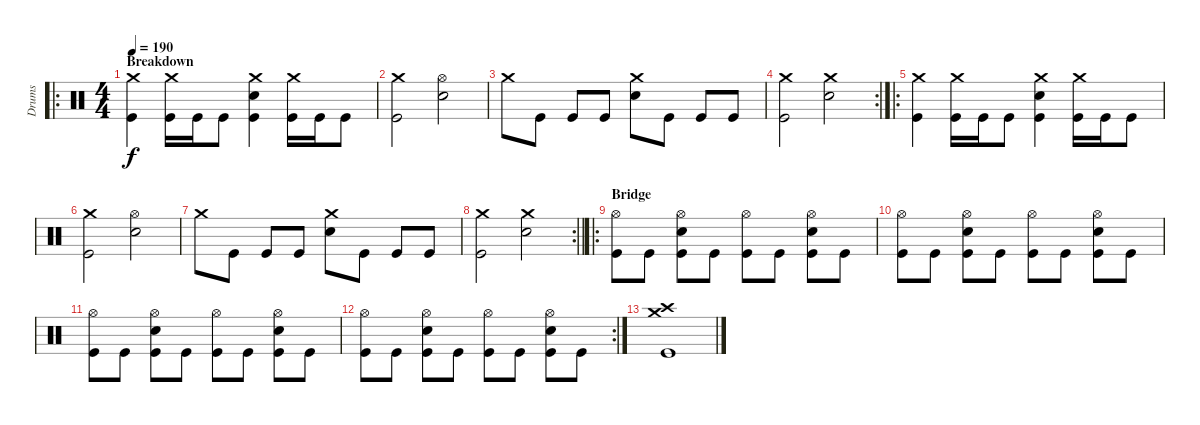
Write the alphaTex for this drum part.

\track ("Drums" "Drums") {instrument percussion}
\staff {score}
\articulation defaults
\ro
\ts (4 4)
\section ("" "Breakdown")
\tempo 190
\clef neutral
\ks c
("Crash medium (hit)" "Kick (hit)").4{dy f} ("Crash medium (hit)" "Kick (hit)").16 "Kick (hit)".16 "Kick (hit)".8 ("Crash medium (hit)" "Snare (hit) 2" "Kick (hit)").4 ("Crash medium (hit)" "Kick (hit)").16 "Kick (hit)".16 "Kick (hit)".8 |
("Crash medium (hit)" "Kick (hit)").2 ("Hi-Hat (open)" "Snare (hit) 2").2 |
"Crash medium (hit)".8 "Kick (hit)".8 "Kick (hit)".8 "Kick (hit)".8 ("Crash medium (hit)" "Snare (hit) 2").8 "Kick (hit)".8 "Kick (hit)".8 "Kick (hit)".8 |
\rc 2
("Crash medium (hit)" "Kick (hit)").2 ("Crash medium (hit)" "Snare (hit) 2").2 |
\ro
("Crash medium (hit)" "Kick (hit)").4 ("Crash medium (hit)" "Kick (hit)").16 "Kick (hit)".16 "Kick (hit)".8 ("Crash medium (hit)" "Snare (hit) 2" "Kick (hit)").4 ("Crash medium (hit)" "Kick (hit)").16 "Kick (hit)".16 "Kick (hit)".8 |
("Crash medium (hit)" "Kick (hit)").2 ("Hi-Hat (open)" "Snare (hit) 2").2 |
"Crash medium (hit)".8 "Kick (hit)".8 "Kick (hit)".8 "Kick (hit)".8 ("Crash medium (hit)" "Snare (hit) 2").8 "Kick (hit)".8 "Kick (hit)".8 "Kick (hit)".8 |
\rc 2
\barLineRight lightlight
("Crash medium (hit)" "Kick (hit)").2 ("Crash medium (hit)" "Snare (hit) 2").2 |
\ro
\section ("" "Bridge")
("Hi-Hat (open)" "Kick (hit)").8 "Kick (hit)".8 ("Hi-Hat (open)" "Snare (hit) 2" "Kick (hit)").8 "Kick (hit)".8 ("Hi-Hat (open)" "Kick (hit)").8 "Kick (hit)".8 ("Hi-Hat (open)" "Snare (hit) 2" "Kick (hit)").8 "Kick (hit)".8 |
("Hi-Hat (open)" "Kick (hit)").8 "Kick (hit)".8 ("Hi-Hat (open)" "Snare (hit) 2" "Kick (hit)").8 "Kick (hit)".8 ("Hi-Hat (open)" "Kick (hit)").8 "Kick (hit)".8 ("Hi-Hat (open)" "Snare (hit) 2" "Kick (hit)").8 "Kick (hit)".8 |
("Hi-Hat (open)" "Kick (hit)").8 "Kick (hit)".8 ("Hi-Hat (open)" "Snare (hit) 2" "Kick (hit)").8 "Kick (hit)".8 ("Hi-Hat (open)" "Kick (hit)").8 "Kick (hit)".8 ("Hi-Hat (open)" "Snare (hit) 2" "Kick (hit)").8 "Kick (hit)".8 |
\rc 2
("Hi-Hat (open)" "Kick (hit)").8 "Kick (hit)".8 ("Hi-Hat (open)" "Snare (hit) 2" "Kick (hit)").8 "Kick (hit)".8 ("Hi-Hat (open)" "Kick (hit)").8 "Kick (hit)".8 ("Hi-Hat (open)" "Snare (hit) 2" "Kick (hit)").8 "Kick (hit)".8 |
("Crash medium (hit)" "Crash high (hit)" "Kick (hit)").1
